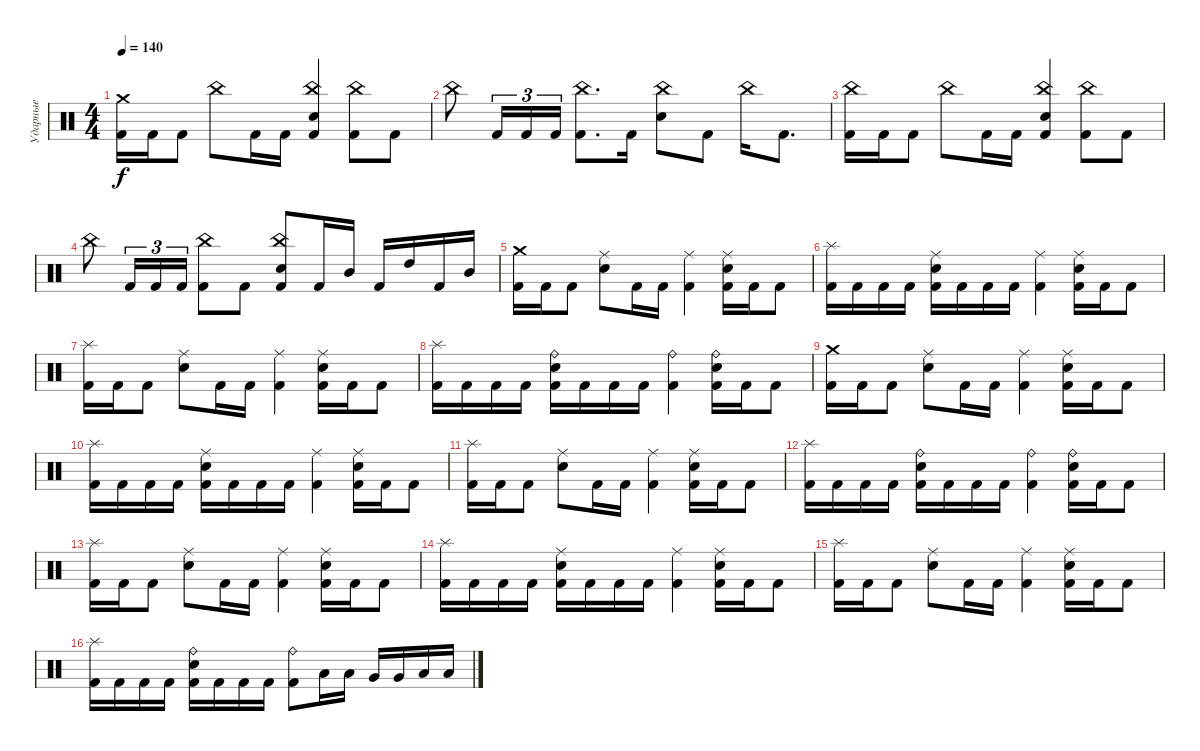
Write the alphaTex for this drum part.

\track ("Ударные" "Ударные") {instrument percussion}
\staff {score}
\articulation defaults
\ts (4 4)
\tempo 140
\clef neutral
\ks c
("Crash medium (hit)" "Kick (hit) 2").16{dy f} "Kick (hit) 2".16 "Kick (hit) 2".8 "China (hit)".8 "Kick (hit) 2".16 "Kick (hit) 2".16 ("China (hit)" "Electric Snare (hit)" "Kick (hit) 2").4 ("China (hit)" "Kick (hit) 2").8 "Kick (hit) 2".8 |
"China (hit)".8 "Kick (hit) 2".16{tu (3 2)} "Kick (hit) 2".16{tu (3 2)} "Kick (hit) 2".16{tu (3 2)} ("China (hit)" "Kick (hit) 2").8{d} "Kick (hit) 2".16 ("China (hit)" "Electric Snare (hit)").8 "Kick (hit) 2".8 "China (hit)".16 "Kick (hit) 2".8{d} |
("China (hit)" "Kick (hit) 2").16 "Kick (hit) 2".16 "Kick (hit) 2".8 "China (hit)".8 "Kick (hit) 2".16 "Kick (hit) 2".16 ("China (hit)" "Electric Snare (hit)" "Kick (hit) 2").4 ("China (hit)" "Kick (hit) 2").8 "Kick (hit) 2".8 |
"China (hit)".8 "Kick (hit) 2".16{tu (3 2)} "Kick (hit) 2".16{tu (3 2)} "Kick (hit) 2".16{tu (3 2)} ("China (hit)" "Kick (hit) 2").8 "Kick (hit) 2".8 ("China (hit)" "Electric Snare (hit)" "Kick (hit) 2").8 "Kick (hit) 2".16 "Mid Tom (hit)".16 "Kick (hit) 2".16 "High Tom (hit)".16 "Kick (hit) 2".16 "Mid Tom (hit)".16 |
("Crash medium (hit)" "Kick (hit) 2").16 "Kick (hit) 2".16 "Kick (hit) 2".8 ("Ride (middle)" "Electric Snare (hit)").8 "Kick (hit) 2".16 "Kick (hit) 2".16 ("Ride (middle)" "Kick (hit) 2").4 ("Ride (middle)" "Electric Snare (hit)" "Kick (hit) 2").16 "Kick (hit) 2".16 "Kick (hit) 2".8 |
("Splash (hit)" "Kick (hit) 2").16 "Kick (hit) 2".16 "Kick (hit) 2".16 "Kick (hit) 2".16 ("Ride (middle)" "Electric Snare (hit)" "Kick (hit) 2").16 "Kick (hit) 2".16 "Kick (hit) 2".16 "Kick (hit) 2".16 ("Ride (middle)" "Kick (hit) 2").4 ("Ride (middle)" "Electric Snare (hit)" "Kick (hit) 2").16 "Kick (hit) 2".16 "Kick (hit) 2".8 |
("Splash (hit)" "Kick (hit) 2").16 "Kick (hit) 2".16 "Kick (hit) 2".8 ("Ride (middle)" "Electric Snare (hit)").8 "Kick (hit) 2".16 "Kick (hit) 2".16 ("Ride (middle)" "Kick (hit) 2").4 ("Ride (middle)" "Electric Snare (hit)" "Kick (hit) 2").16 "Kick (hit) 2".16 "Kick (hit) 2".8 |
("Splash (hit)" "Kick (hit) 2").16 "Kick (hit) 2".16 "Kick (hit) 2".16 "Kick (hit) 2".16 ("Ride (bell)" "Electric Snare (hit)" "Kick (hit) 2").16 "Kick (hit) 2".16 "Kick (hit) 2".16 "Kick (hit) 2".16 ("Ride (bell)" "Kick (hit) 2").4 ("Ride (bell)" "Electric Snare (hit)" "Kick (hit) 2").16 "Kick (hit) 2".16 "Kick (hit) 2".8 |
("Crash medium (hit)" "Kick (hit) 2").16 "Kick (hit) 2".16 "Kick (hit) 2".8 ("Ride (middle)" "Electric Snare (hit)").8 "Kick (hit) 2".16 "Kick (hit) 2".16 ("Ride (middle)" "Kick (hit) 2").4 ("Ride (middle)" "Electric Snare (hit)" "Kick (hit) 2").16 "Kick (hit) 2".16 "Kick (hit) 2".8 |
("Splash (hit)" "Kick (hit) 2").16 "Kick (hit) 2".16 "Kick (hit) 2".16 "Kick (hit) 2".16 ("Ride (middle)" "Electric Snare (hit)" "Kick (hit) 2").16 "Kick (hit) 2".16 "Kick (hit) 2".16 "Kick (hit) 2".16 ("Ride (middle)" "Kick (hit) 2").4 ("Ride (middle)" "Electric Snare (hit)" "Kick (hit) 2").16 "Kick (hit) 2".16 "Kick (hit) 2".8 |
("Splash (hit)" "Kick (hit) 2").16 "Kick (hit) 2".16 "Kick (hit) 2".8 ("Ride (middle)" "Electric Snare (hit)").8 "Kick (hit) 2".16 "Kick (hit) 2".16 ("Ride (middle)" "Kick (hit) 2").4 ("Ride (middle)" "Electric Snare (hit)" "Kick (hit) 2").16 "Kick (hit) 2".16 "Kick (hit) 2".8 |
("Splash (hit)" "Kick (hit) 2").16 "Kick (hit) 2".16 "Kick (hit) 2".16 "Kick (hit) 2".16 ("Ride (bell)" "Electric Snare (hit)" "Kick (hit) 2").16 "Kick (hit) 2".16 "Kick (hit) 2".16 "Kick (hit) 2".16 ("Ride (bell)" "Kick (hit) 2").4 ("Ride (bell)" "Electric Snare (hit)" "Kick (hit) 2").16 "Kick (hit) 2".16 "Kick (hit) 2".8 |
("Splash (hit)" "Kick (hit) 2").16 "Kick (hit) 2".16 "Kick (hit) 2".8 ("Ride (middle)" "Electric Snare (hit)").8 "Kick (hit) 2".16 "Kick (hit) 2".16 ("Ride (middle)" "Kick (hit) 2").4 ("Ride (middle)" "Electric Snare (hit)" "Kick (hit) 2").16 "Kick (hit) 2".16 "Kick (hit) 2".8 |
("Splash (hit)" "Kick (hit) 2").16 "Kick (hit) 2".16 "Kick (hit) 2".16 "Kick (hit) 2".16 ("Ride (middle)" "Electric Snare (hit)" "Kick (hit) 2").16 "Kick (hit) 2".16 "Kick (hit) 2".16 "Kick (hit) 2".16 ("Ride (middle)" "Kick (hit) 2").4 ("Ride (middle)" "Electric Snare (hit)" "Kick (hit) 2").16 "Kick (hit) 2".16 "Kick (hit) 2".8 |
("Splash (hit)" "Kick (hit) 2").16 "Kick (hit) 2".16 "Kick (hit) 2".8 ("Ride (middle)" "Electric Snare (hit)").8 "Kick (hit) 2".16 "Kick (hit) 2".16 ("Ride (middle)" "Kick (hit) 2").4 ("Ride (middle)" "Electric Snare (hit)" "Kick (hit) 2").16 "Kick (hit) 2".16 "Kick (hit) 2".8 |
("Splash (hit)" "Kick (hit) 2").16 "Kick (hit) 2".16 "Kick (hit) 2".16 "Kick (hit) 2".16 ("Ride (bell)" "Electric Snare (hit)" "Kick (hit) 2").16 "Kick (hit) 2".16 "Kick (hit) 2".16 "Kick (hit) 2".16 ("Ride (bell)" "Kick (hit) 2").8 "Low Tom (hit)".16 "Low Tom (hit)".16 "Very Low Tom (hit)".16 "Very Low Tom (hit)".16 "Low Floor Tom (hit)".16 "Low Floor Tom (hit)".16
